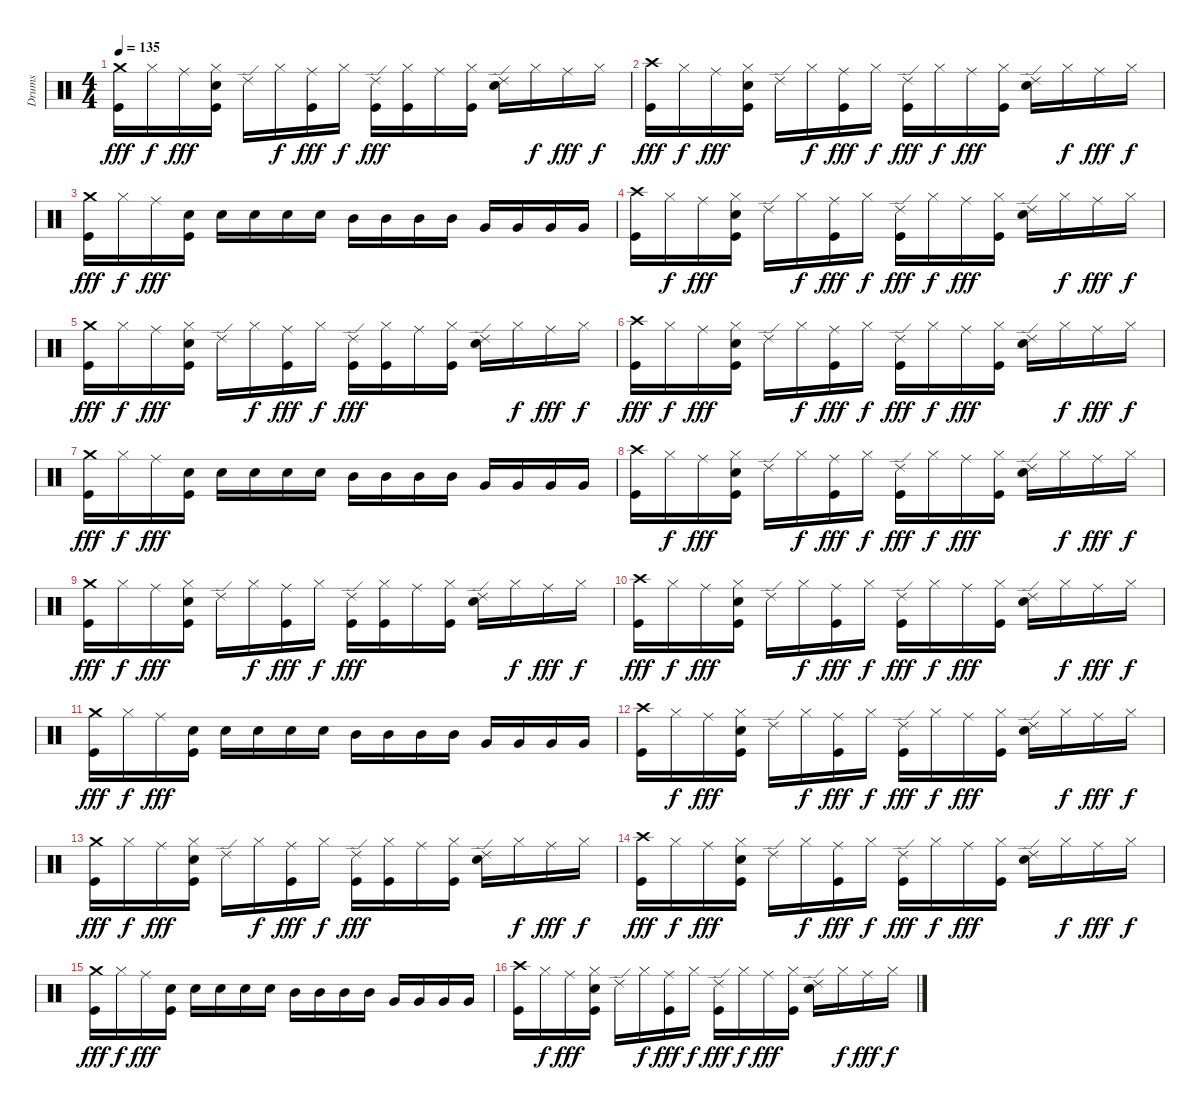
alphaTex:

\track ("Drums" "Drums") {instrument percussion}
\staff {score}
\articulation defaults
\ts (4 4)
\tempo 135
\clef neutral
\ks c
("Crash medium (hit)" "Kick (hit)").16{dy fff} "Hi-Hat (closed)".16{dy f} "Ride (middle)".16{dy fff} ("Hi-Hat (closed)" "Snare (hit) 2" "Kick (hit)").16 "Ride (edge) 2".16 "Hi-Hat (closed)".16{dy f} ("Ride (middle)" "Kick (hit)").16{dy fff} "Hi-Hat (closed)".16{dy f} ("Ride (edge) 2" "Kick (hit)").16{dy fff} ("Hi-Hat (closed)" "Kick (hit)").16 "Ride (middle)".16 ("Hi-Hat (closed)" "Kick (hit)").16 ("Ride (edge) 2" "Snare (hit) 2").16 "Hi-Hat (closed)".16{dy f} "Ride (middle)".16{dy fff} "Hi-Hat (closed)".16{dy f} |
("Crash high (hit)" "Kick (hit)").16{dy fff} "Hi-Hat (closed)".16{dy f} "Ride (middle)".16{dy fff} ("Hi-Hat (closed)" "Snare (hit) 2" "Kick (hit)").16 "Ride (edge) 2".16 "Hi-Hat (closed)".16{dy f} ("Ride (middle)" "Kick (hit)").16{dy fff} "Hi-Hat (closed)".16{dy f} ("Ride (edge) 2" "Kick (hit)").16{dy fff} "Hi-Hat (closed)".16{dy f} "Ride (middle)".16{dy fff} ("Hi-Hat (closed)" "Kick (hit)").16 ("Ride (edge) 2" "Snare (hit) 2").16 "Hi-Hat (closed)".16{dy f} "Ride (middle)".16{dy fff} "Hi-Hat (closed)".16{dy f} |
("Crash medium (hit)" "Kick (hit)").16{dy fff} "Hi-Hat (closed)".16{dy f} "Ride (middle)".16{dy fff volume 10} ("Snare (hit) 2" "Kick (hit)").16{volume 14} "Snare (hit) 2".16 "Snare (hit) 2".16 "Snare (hit) 2".16 "Snare (hit) 2".16 "Mid Tom (hit)".16 "Mid Tom (hit)".16 "Mid Tom (hit)".16 "Mid Tom (hit)".16 "Very Low Tom (hit)".16 "Very Low Tom (hit)".16 "Very Low Tom (hit)".16 "Very Low Tom (hit)".16 |
("Crash high (hit)" "Kick (hit)").16 "Hi-Hat (closed)".16{dy f} "Ride (middle)".16{dy fff} ("Hi-Hat (closed)" "Snare (hit) 2" "Kick (hit)").16 "Ride (edge) 2".16 "Hi-Hat (closed)".16{dy f} ("Ride (middle)" "Kick (hit)").16{dy fff} "Hi-Hat (closed)".16{dy f} ("Ride (edge) 2" "Kick (hit)").16{dy fff} "Hi-Hat (closed)".16{dy f} "Ride (middle)".16{dy fff} ("Hi-Hat (closed)" "Kick (hit)").16 ("Ride (edge) 2" "Snare (hit) 2").16 "Hi-Hat (closed)".16{dy f} "Ride (middle)".16{dy fff} "Hi-Hat (closed)".16{dy f} |
("Crash medium (hit)" "Kick (hit)").16{dy fff} "Hi-Hat (closed)".16{dy f} "Ride (middle)".16{dy fff} ("Hi-Hat (closed)" "Snare (hit) 2" "Kick (hit)").16 "Ride (edge) 2".16 "Hi-Hat (closed)".16{dy f} ("Ride (middle)" "Kick (hit)").16{dy fff} "Hi-Hat (closed)".16{dy f} ("Ride (edge) 2" "Kick (hit)").16{dy fff} ("Hi-Hat (closed)" "Kick (hit)").16 "Ride (middle)".16 ("Hi-Hat (closed)" "Kick (hit)").16 ("Ride (edge) 2" "Snare (hit) 2").16 "Hi-Hat (closed)".16{dy f} "Ride (middle)".16{dy fff} "Hi-Hat (closed)".16{dy f} |
("Crash high (hit)" "Kick (hit)").16{dy fff} "Hi-Hat (closed)".16{dy f} "Ride (middle)".16{dy fff} ("Hi-Hat (closed)" "Snare (hit) 2" "Kick (hit)").16 "Ride (edge) 2".16 "Hi-Hat (closed)".16{dy f} ("Ride (middle)" "Kick (hit)").16{dy fff} "Hi-Hat (closed)".16{dy f} ("Ride (edge) 2" "Kick (hit)").16{dy fff} "Hi-Hat (closed)".16{dy f} "Ride (middle)".16{dy fff} ("Hi-Hat (closed)" "Kick (hit)").16 ("Ride (edge) 2" "Snare (hit) 2").16 "Hi-Hat (closed)".16{dy f} "Ride (middle)".16{dy fff} "Hi-Hat (closed)".16{dy f} |
("Crash medium (hit)" "Kick (hit)").16{dy fff} "Hi-Hat (closed)".16{dy f} "Ride (middle)".16{dy fff volume 10} ("Snare (hit) 2" "Kick (hit)").16{volume 14} "Snare (hit) 2".16 "Snare (hit) 2".16 "Snare (hit) 2".16 "Snare (hit) 2".16 "Mid Tom (hit)".16 "Mid Tom (hit)".16 "Mid Tom (hit)".16 "Mid Tom (hit)".16 "Very Low Tom (hit)".16 "Very Low Tom (hit)".16 "Very Low Tom (hit)".16 "Very Low Tom (hit)".16 |
("Crash high (hit)" "Kick (hit)").16 "Hi-Hat (closed)".16{dy f} "Ride (middle)".16{dy fff} ("Hi-Hat (closed)" "Snare (hit) 2" "Kick (hit)").16 "Ride (edge) 2".16 "Hi-Hat (closed)".16{dy f} ("Ride (middle)" "Kick (hit)").16{dy fff} "Hi-Hat (closed)".16{dy f} ("Ride (edge) 2" "Kick (hit)").16{dy fff} "Hi-Hat (closed)".16{dy f} "Ride (middle)".16{dy fff} ("Hi-Hat (closed)" "Kick (hit)").16 ("Ride (edge) 2" "Snare (hit) 2").16 "Hi-Hat (closed)".16{dy f} "Ride (middle)".16{dy fff} "Hi-Hat (closed)".16{dy f} |
("Crash medium (hit)" "Kick (hit)").16{dy fff} "Hi-Hat (closed)".16{dy f} "Ride (middle)".16{dy fff} ("Hi-Hat (closed)" "Snare (hit) 2" "Kick (hit)").16 "Ride (edge) 2".16 "Hi-Hat (closed)".16{dy f} ("Ride (middle)" "Kick (hit)").16{dy fff} "Hi-Hat (closed)".16{dy f} ("Ride (edge) 2" "Kick (hit)").16{dy fff} ("Hi-Hat (closed)" "Kick (hit)").16 "Ride (middle)".16 ("Hi-Hat (closed)" "Kick (hit)").16 ("Ride (edge) 2" "Snare (hit) 2").16 "Hi-Hat (closed)".16{dy f} "Ride (middle)".16{dy fff} "Hi-Hat (closed)".16{dy f} |
("Crash high (hit)" "Kick (hit)").16{dy fff} "Hi-Hat (closed)".16{dy f} "Ride (middle)".16{dy fff} ("Hi-Hat (closed)" "Snare (hit) 2" "Kick (hit)").16 "Ride (edge) 2".16 "Hi-Hat (closed)".16{dy f} ("Ride (middle)" "Kick (hit)").16{dy fff} "Hi-Hat (closed)".16{dy f} ("Ride (edge) 2" "Kick (hit)").16{dy fff} "Hi-Hat (closed)".16{dy f} "Ride (middle)".16{dy fff} ("Hi-Hat (closed)" "Kick (hit)").16 ("Ride (edge) 2" "Snare (hit) 2").16 "Hi-Hat (closed)".16{dy f} "Ride (middle)".16{dy fff} "Hi-Hat (closed)".16{dy f} |
("Crash medium (hit)" "Kick (hit)").16{dy fff} "Hi-Hat (closed)".16{dy f} "Ride (middle)".16{dy fff volume 10} ("Snare (hit) 2" "Kick (hit)").16{volume 14} "Snare (hit) 2".16 "Snare (hit) 2".16 "Snare (hit) 2".16 "Snare (hit) 2".16 "Mid Tom (hit)".16 "Mid Tom (hit)".16 "Mid Tom (hit)".16 "Mid Tom (hit)".16 "Very Low Tom (hit)".16 "Very Low Tom (hit)".16 "Very Low Tom (hit)".16 "Very Low Tom (hit)".16 |
("Crash high (hit)" "Kick (hit)").16 "Hi-Hat (closed)".16{dy f} "Ride (middle)".16{dy fff} ("Hi-Hat (closed)" "Snare (hit) 2" "Kick (hit)").16 "Ride (edge) 2".16 "Hi-Hat (closed)".16{dy f} ("Ride (middle)" "Kick (hit)").16{dy fff} "Hi-Hat (closed)".16{dy f} ("Ride (edge) 2" "Kick (hit)").16{dy fff} "Hi-Hat (closed)".16{dy f} "Ride (middle)".16{dy fff} ("Hi-Hat (closed)" "Kick (hit)").16 ("Ride (edge) 2" "Snare (hit) 2").16 "Hi-Hat (closed)".16{dy f} "Ride (middle)".16{dy fff} "Hi-Hat (closed)".16{dy f} |
("Crash medium (hit)" "Kick (hit)").16{dy fff} "Hi-Hat (closed)".16{dy f} "Ride (middle)".16{dy fff} ("Hi-Hat (closed)" "Snare (hit) 2" "Kick (hit)").16 "Ride (edge) 2".16 "Hi-Hat (closed)".16{dy f} ("Ride (middle)" "Kick (hit)").16{dy fff} "Hi-Hat (closed)".16{dy f} ("Ride (edge) 2" "Kick (hit)").16{dy fff} ("Hi-Hat (closed)" "Kick (hit)").16 "Ride (middle)".16 ("Hi-Hat (closed)" "Kick (hit)").16 ("Ride (edge) 2" "Snare (hit) 2").16 "Hi-Hat (closed)".16{dy f} "Ride (middle)".16{dy fff} "Hi-Hat (closed)".16{dy f} |
("Crash high (hit)" "Kick (hit)").16{dy fff} "Hi-Hat (closed)".16{dy f} "Ride (middle)".16{dy fff} ("Hi-Hat (closed)" "Snare (hit) 2" "Kick (hit)").16 "Ride (edge) 2".16 "Hi-Hat (closed)".16{dy f} ("Ride (middle)" "Kick (hit)").16{dy fff} "Hi-Hat (closed)".16{dy f} ("Ride (edge) 2" "Kick (hit)").16{dy fff} "Hi-Hat (closed)".16{dy f} "Ride (middle)".16{dy fff} ("Hi-Hat (closed)" "Kick (hit)").16 ("Ride (edge) 2" "Snare (hit) 2").16 "Hi-Hat (closed)".16{dy f} "Ride (middle)".16{dy fff} "Hi-Hat (closed)".16{dy f} |
("Crash medium (hit)" "Kick (hit)").16{dy fff} "Hi-Hat (closed)".16{dy f} "Ride (middle)".16{dy fff volume 10} ("Snare (hit) 2" "Kick (hit)").16{volume 14} "Snare (hit) 2".16 "Snare (hit) 2".16 "Snare (hit) 2".16 "Snare (hit) 2".16 "Mid Tom (hit)".16 "Mid Tom (hit)".16 "Mid Tom (hit)".16 "Mid Tom (hit)".16 "Very Low Tom (hit)".16 "Very Low Tom (hit)".16 "Very Low Tom (hit)".16 "Very Low Tom (hit)".16 |
("Crash high (hit)" "Kick (hit)").16 "Hi-Hat (closed)".16{dy f} "Ride (middle)".16{dy fff} ("Hi-Hat (closed)" "Snare (hit) 2" "Kick (hit)").16 "Ride (edge) 2".16 "Hi-Hat (closed)".16{dy f} ("Ride (middle)" "Kick (hit)").16{dy fff} "Hi-Hat (closed)".16{dy f} ("Ride (edge) 2" "Kick (hit)").16{dy fff} "Hi-Hat (closed)".16{dy f} "Ride (middle)".16{dy fff} ("Hi-Hat (closed)" "Kick (hit)").16 ("Ride (edge) 2" "Snare (hit) 2").16 "Hi-Hat (closed)".16{dy f} "Ride (middle)".16{dy fff} "Hi-Hat (closed)".16{dy f}
